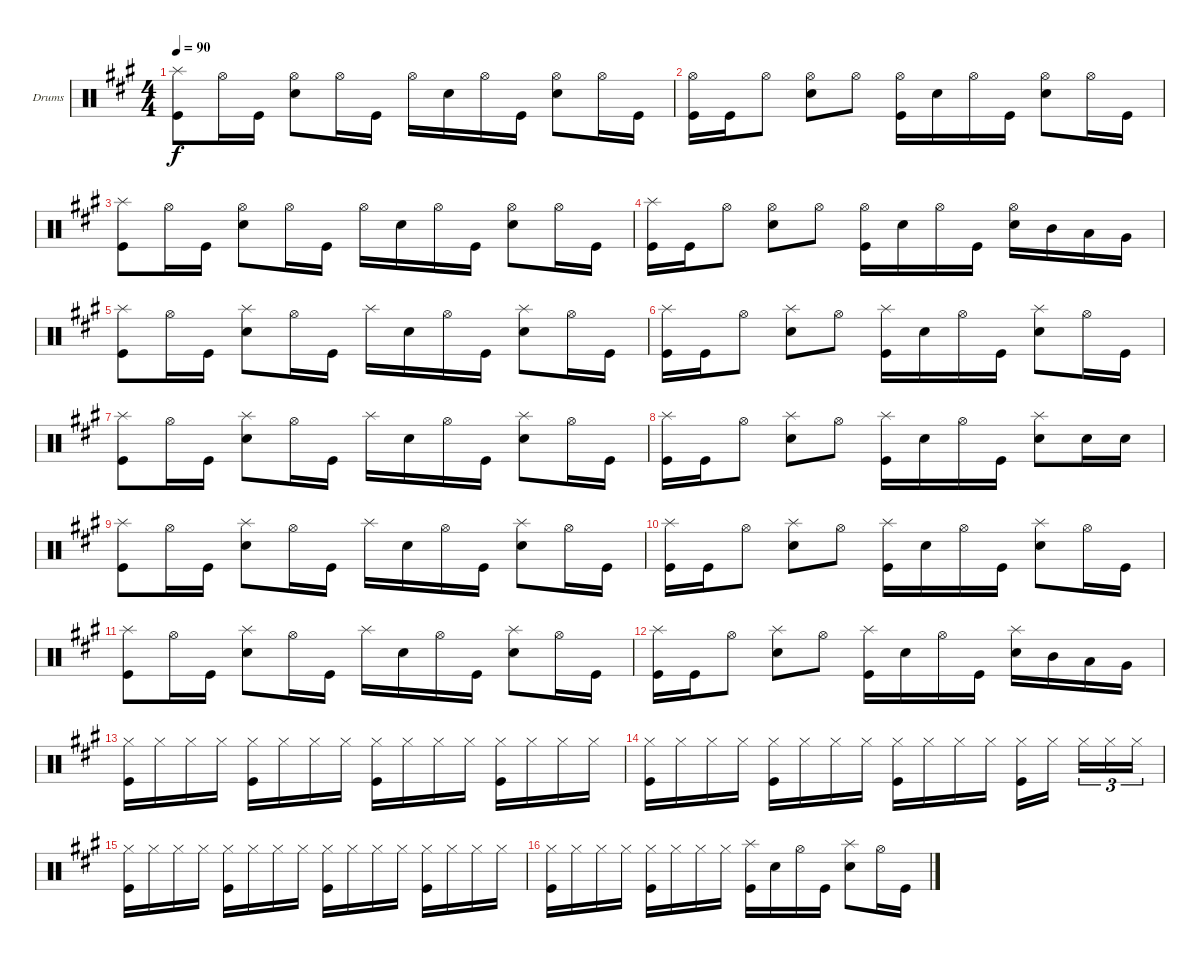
\bracketExtendMode groupsimilarinstruments
\firstSystemTrackNameOrientation horizontal
\otherSystemsTrackNameOrientation horizontal
\track ("Drumkit" "Drums") {instrument percussion}
\staff {score}
\articulation defaults
\ts (4 4)
\tempo 90
\clef neutral
\ks f#minor
("Kick (hit)" "Splash (hit)").8{dy f} "Hi-Hat (open)".16 "Kick (hit)".16 ("Snare (hit) 2" "Hi-Hat (open)").8 "Hi-Hat (open)".16 "Kick (hit)".16 "Hi-Hat (open)".16 "Snare (hit) 2".16 "Hi-Hat (open)".16 "Kick (hit)".16 ("Snare (hit) 2" "Hi-Hat (open)").8 "Hi-Hat (open)".16 "Kick (hit)".16 |
("Hi-Hat (open)" "Kick (hit)").16 "Kick (hit)".16 "Hi-Hat (open)".8 ("Snare (hit) 2" "Hi-Hat (open)").8 "Hi-Hat (open)".8 ("Kick (hit)" "Hi-Hat (open)").16 "Snare (hit) 2".16 "Hi-Hat (open)".16 "Kick (hit)".16 ("Snare (hit) 2" "Hi-Hat (open)").8 "Hi-Hat (open)".16 "Kick (hit)".16 |
("Kick (hit)" "Splash (hit)").8 "Hi-Hat (open)".16 "Kick (hit)".16 ("Snare (hit) 2" "Hi-Hat (open)").8 "Hi-Hat (open)".16 "Kick (hit)".16 "Hi-Hat (open)".16 "Snare (hit) 2".16 "Hi-Hat (open)".16 "Kick (hit)".16 ("Snare (hit) 2" "Hi-Hat (open)").8 "Hi-Hat (open)".16 "Kick (hit)".16 |
("Kick (hit)" "Splash (hit)").16 "Kick (hit)".16 "Hi-Hat (open)".8 ("Snare (hit) 2" "Hi-Hat (open)").8 "Hi-Hat (open)".8 ("Kick (hit)" "Hi-Hat (open)").16 "Snare (hit) 2".16 "Hi-Hat (open)".16 "Kick (hit)".16 ("Snare (hit) 2" "Hi-Hat (open)").16 "Mid Tom (hit)".16 "Low Tom (hit)".16 "Very Low Tom (hit)".16 |
("Kick (hit)" "Splash (hit)").8 "Hi-Hat (open)".16 "Kick (hit)".16 ("Snare (hit) 2" "Splash (hit)").8 "Hi-Hat (open)".16 "Kick (hit)".16 "Splash (hit)".16 "Snare (hit) 2".16 "Hi-Hat (open)".16 "Kick (hit)".16 ("Snare (hit) 2" "Splash (hit)").8 "Hi-Hat (open)".16 "Kick (hit)".16 |
("Kick (hit)" "Splash (hit)").16 "Kick (hit)".16 "Hi-Hat (open)".8 ("Snare (hit) 2" "Splash (hit)").8 "Hi-Hat (open)".8 ("Kick (hit)" "Splash (hit)").16 "Snare (hit) 2".16 "Hi-Hat (open)".16 "Kick (hit)".16 ("Snare (hit) 2" "Splash (hit)").8 "Hi-Hat (open)".16 "Kick (hit)".16 |
("Kick (hit)" "Splash (hit)").8 "Hi-Hat (open)".16 "Kick (hit)".16 ("Snare (hit) 2" "Splash (hit)").8 "Hi-Hat (open)".16 "Kick (hit)".16 "Splash (hit)".16 "Snare (hit) 2".16 "Hi-Hat (open)".16 "Kick (hit)".16 ("Snare (hit) 2" "Splash (hit)").8 "Hi-Hat (open)".16 "Kick (hit)".16 |
("Kick (hit)" "Splash (hit)").16 "Kick (hit)".16 "Hi-Hat (open)".8 ("Snare (hit) 2" "Splash (hit)").8 "Hi-Hat (open)".8 ("Kick (hit)" "Splash (hit)").16 "Snare (hit) 2".16 "Hi-Hat (open)".16 "Kick (hit)".16 ("Snare (hit) 2" "Splash (hit)").8 "Snare (hit) 2".16 "Snare (hit) 2".16 |
("Kick (hit)" "Splash (hit)").8 "Hi-Hat (open)".16 "Kick (hit)".16 ("Snare (hit) 2" "Splash (hit)").8 "Hi-Hat (open)".16 "Kick (hit)".16 "Splash (hit)".16 "Snare (hit) 2".16 "Hi-Hat (open)".16 "Kick (hit)".16 ("Snare (hit) 2" "Splash (hit)").8 "Hi-Hat (open)".16 "Kick (hit)".16 |
("Kick (hit)" "Splash (hit)").16 "Kick (hit)".16 "Hi-Hat (open)".8 ("Snare (hit) 2" "Splash (hit)").8 "Hi-Hat (open)".8 ("Kick (hit)" "Splash (hit)").16 "Snare (hit) 2".16 "Hi-Hat (open)".16 "Kick (hit)".16 ("Snare (hit) 2" "Splash (hit)").8 "Hi-Hat (open)".16 "Kick (hit)".16 |
("Kick (hit)" "Splash (hit)").8 "Hi-Hat (open)".16 "Kick (hit)".16 ("Snare (hit) 2" "Splash (hit)").8 "Hi-Hat (open)".16 "Kick (hit)".16 "Splash (hit)".16 "Snare (hit) 2".16 "Hi-Hat (open)".16 "Kick (hit)".16 ("Snare (hit) 2" "Splash (hit)").8 "Hi-Hat (open)".16 "Kick (hit)".16 |
("Kick (hit)" "Splash (hit)").16 "Kick (hit)".16 "Hi-Hat (open)".8 ("Snare (hit) 2" "Splash (hit)").8 "Hi-Hat (open)".8 ("Kick (hit)" "Splash (hit)").16 "Snare (hit) 2".16 "Hi-Hat (open)".16 "Kick (hit)".16 ("Snare (hit) 2" "Splash (hit)").16 "Mid Tom (hit)".16 "Low Tom (hit)".16 "Very Low Tom (hit)".16 |
("Hi-Hat (closed)" "Kick (hit)").16 "Hi-Hat (closed)".16 "Hi-Hat (closed)".16 "Hi-Hat (closed)".16 ("Kick (hit)" "Hi-Hat (closed)").16 "Hi-Hat (closed)".16 "Hi-Hat (closed)".16 "Hi-Hat (closed)".16 ("Hi-Hat (closed)" "Kick (hit)").16 "Hi-Hat (closed)".16 "Hi-Hat (closed)".16 "Hi-Hat (closed)".16 ("Hi-Hat (closed)" "Kick (hit)").16 "Hi-Hat (closed)".16 "Hi-Hat (closed)".16 "Hi-Hat (closed)".16 |
("Hi-Hat (closed)" "Kick (hit)").16 "Hi-Hat (closed)".16 "Hi-Hat (closed)".16 "Hi-Hat (closed)".16 ("Kick (hit)" "Hi-Hat (closed)").16 "Hi-Hat (closed)".16 "Hi-Hat (closed)".16 "Hi-Hat (closed)".16 ("Hi-Hat (closed)" "Kick (hit)").16 "Hi-Hat (closed)".16 "Hi-Hat (closed)".16 "Hi-Hat (closed)".16 ("Hi-Hat (closed)" "Kick (hit)").16 "Hi-Hat (closed)".16 "Hi-Hat (closed)".16{tu (3 2)} "Hi-Hat (closed)".16{tu (3 2)} "Hi-Hat (closed)".16{tu (3 2)} |
("Hi-Hat (closed)" "Kick (hit)").16 "Hi-Hat (closed)".16 "Hi-Hat (closed)".16 "Hi-Hat (closed)".16 ("Kick (hit)" "Hi-Hat (closed)").16 "Hi-Hat (closed)".16 "Hi-Hat (closed)".16 "Hi-Hat (closed)".16 ("Hi-Hat (closed)" "Kick (hit)").16 "Hi-Hat (closed)".16 "Hi-Hat (closed)".16 "Hi-Hat (closed)".16 ("Hi-Hat (closed)" "Kick (hit)").16 "Hi-Hat (closed)".16 "Hi-Hat (closed)".16 "Hi-Hat (closed)".16 |
("Hi-Hat (closed)" "Kick (hit)").16 "Hi-Hat (closed)".16 "Hi-Hat (closed)".16 "Hi-Hat (closed)".16 ("Kick (hit)" "Hi-Hat (closed)").16 "Hi-Hat (closed)".16 "Hi-Hat (closed)".16 "Hi-Hat (closed)".16 ("Kick (hit)" "Splash (hit)").16 "Snare (hit) 2".16 "Hi-Hat (open)".16 "Kick (hit)".16 ("Snare (hit) 2" "Splash (hit)").8 "Hi-Hat (open)".16 "Kick (hit)".16
